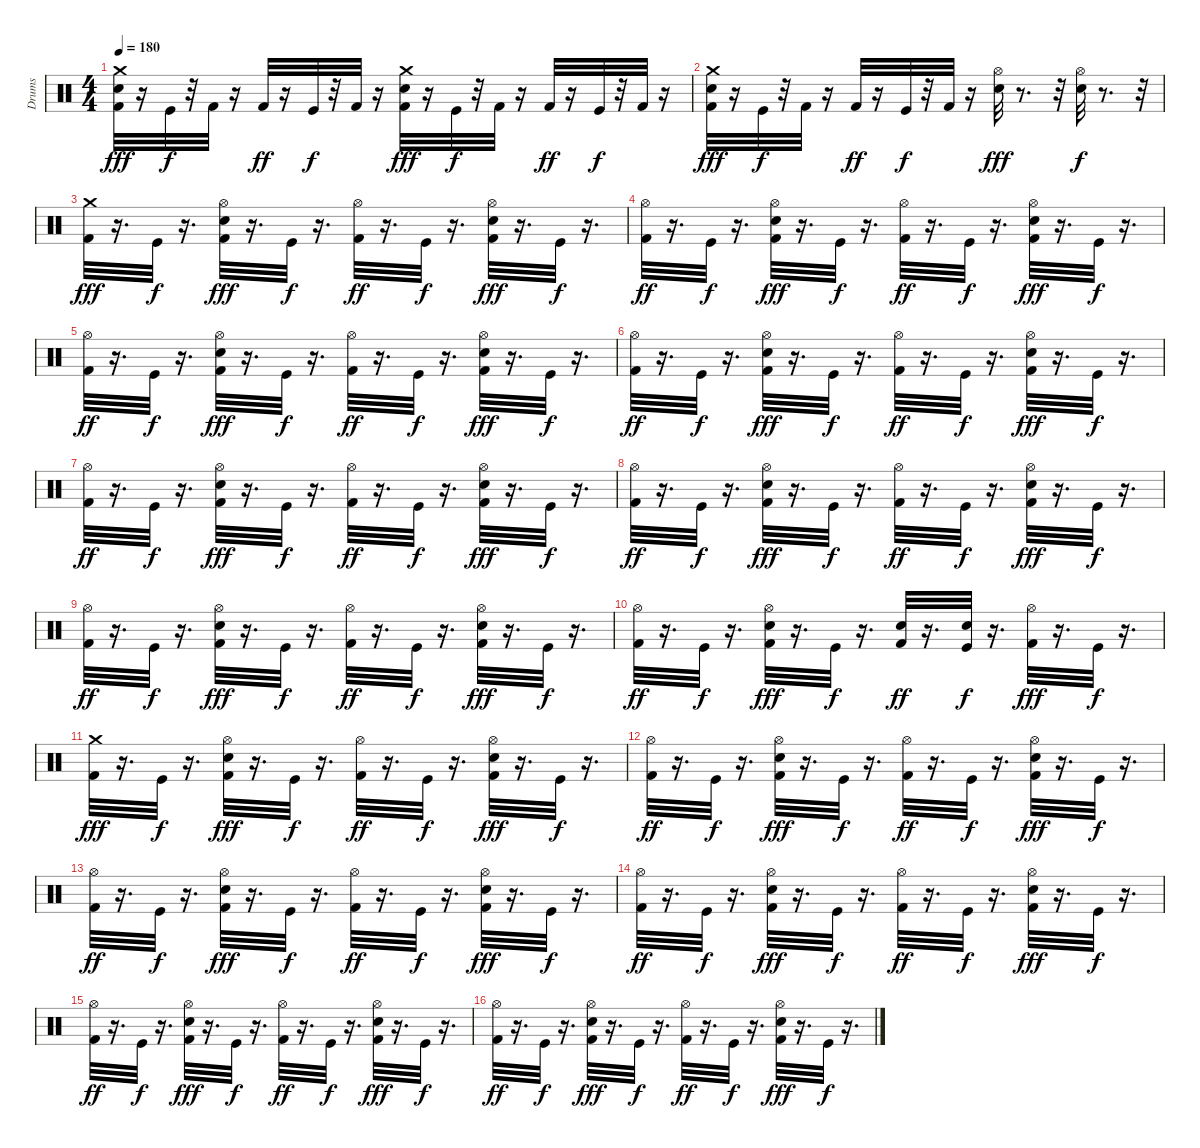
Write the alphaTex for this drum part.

\track ("Drums" "Drums") {instrument percussion}
\staff {score}
\articulation defaults
\ts (4 4)
\tempo 180
\clef neutral
\ks c
("Kick (hit) 2" "Snare (hit) 2" "Crash medium (hit)").32{dy fff} r.16 "Kick (hit)".32{dy f} r.32 "Kick (hit) 2".32 r.16 "Kick (hit) 2".32{dy ff} r.16 "Kick (hit)".32{dy f} r.32 "Kick (hit) 2".32 r.16 ("Crash medium (hit)" "Kick (hit) 2" "Snare (hit) 2").32{dy fff} r.16 "Kick (hit)".32{dy f} r.32 "Kick (hit) 2".32 r.16 "Kick (hit) 2".32{dy ff} r.16 "Kick (hit)".32{dy f} r.32 "Kick (hit) 2".32 r.16 |
("Crash medium (hit)" "Kick (hit) 2" "Snare (hit) 2").32{dy fff} r.16 "Kick (hit)".32{dy f} r.32 "Kick (hit) 2".32 r.16 "Kick (hit) 2".32{dy ff} r.16 "Kick (hit)".32{dy f} r.32 "Kick (hit) 2".32 r.16 ("Hi-Hat (open)" "Snare (hit) 2").32{dy fff} r.8{d} r.32 ("Hi-Hat (open)" "Snare (hit) 2").32{dy f} r.8{d} r.32 |
("Kick (hit) 2" "Crash medium (hit)").32{dy fff} r.16{d} "Kick (hit)".32{dy f} r.16{d} ("Kick (hit) 2" "Snare (hit) 2" "Hi-Hat (open)").32{dy fff} r.16{d} "Kick (hit)".32{dy f} r.16{d} ("Kick (hit) 2" "Hi-Hat (open)").32{dy ff} r.16{d} "Kick (hit)".32{dy f} r.16{d} ("Kick (hit) 2" "Snare (hit) 2" "Hi-Hat (open)").32{dy fff} r.16{d} "Kick (hit)".32{dy f} r.16{d} |
("Kick (hit) 2" "Hi-Hat (open)").32{dy ff} r.16{d} "Kick (hit)".32{dy f} r.16{d} ("Kick (hit) 2" "Snare (hit) 2" "Hi-Hat (open)").32{dy fff} r.16{d} "Kick (hit)".32{dy f} r.16{d} ("Kick (hit) 2" "Hi-Hat (open)").32{dy ff} r.16{d} "Kick (hit)".32{dy f} r.16{d} ("Kick (hit) 2" "Snare (hit) 2" "Hi-Hat (open)").32{dy fff} r.16{d} "Kick (hit)".32{dy f} r.16{d} |
("Kick (hit) 2" "Hi-Hat (open)").32{dy ff} r.16{d} "Kick (hit)".32{dy f} r.16{d} ("Kick (hit) 2" "Snare (hit) 2" "Hi-Hat (open)").32{dy fff} r.16{d} "Kick (hit)".32{dy f} r.16{d} ("Kick (hit) 2" "Hi-Hat (open)").32{dy ff} r.16{d} "Kick (hit)".32{dy f} r.16{d} ("Kick (hit) 2" "Snare (hit) 2" "Hi-Hat (open)").32{dy fff} r.16{d} "Kick (hit)".32{dy f} r.16{d} |
("Kick (hit) 2" "Hi-Hat (open)").32{dy ff} r.16{d} "Kick (hit)".32{dy f} r.16{d} ("Kick (hit) 2" "Snare (hit) 2" "Hi-Hat (open)").32{dy fff} r.16{d} "Kick (hit)".32{dy f} r.16{d} ("Kick (hit) 2" "Hi-Hat (open)").32{dy ff} r.16{d} "Kick (hit)".32{dy f} r.16{d} ("Kick (hit) 2" "Snare (hit) 2" "Hi-Hat (open)").32{dy fff} r.16{d} "Kick (hit)".32{dy f} r.16{d} |
("Kick (hit) 2" "Hi-Hat (open)").32{dy ff} r.16{d} "Kick (hit)".32{dy f} r.16{d} ("Kick (hit) 2" "Snare (hit) 2" "Hi-Hat (open)").32{dy fff} r.16{d} "Kick (hit)".32{dy f} r.16{d} ("Kick (hit) 2" "Hi-Hat (open)").32{dy ff} r.16{d} "Kick (hit)".32{dy f} r.16{d} ("Kick (hit) 2" "Snare (hit) 2" "Hi-Hat (open)").32{dy fff} r.16{d} "Kick (hit)".32{dy f} r.16{d} |
("Kick (hit) 2" "Hi-Hat (open)").32{dy ff} r.16{d} "Kick (hit)".32{dy f} r.16{d} ("Kick (hit) 2" "Snare (hit) 2" "Hi-Hat (open)").32{dy fff} r.16{d} "Kick (hit)".32{dy f} r.16{d} ("Kick (hit) 2" "Hi-Hat (open)").32{dy ff} r.16{d} "Kick (hit)".32{dy f} r.16{d} ("Kick (hit) 2" "Snare (hit) 2" "Hi-Hat (open)").32{dy fff} r.16{d} "Kick (hit)".32{dy f} r.16{d} |
("Kick (hit) 2" "Hi-Hat (open)").32{dy ff} r.16{d} "Kick (hit)".32{dy f} r.16{d} ("Kick (hit) 2" "Snare (hit) 2" "Hi-Hat (open)").32{dy fff} r.16{d} "Kick (hit)".32{dy f} r.16{d} ("Kick (hit) 2" "Hi-Hat (open)").32{dy ff} r.16{d} "Kick (hit)".32{dy f} r.16{d} ("Kick (hit) 2" "Snare (hit) 2" "Hi-Hat (open)").32{dy fff} r.16{d} "Kick (hit)".32{dy f} r.16{d} |
("Kick (hit) 2" "Hi-Hat (open)").32{dy ff} r.16{d} "Kick (hit)".32{dy f} r.16{d} ("Kick (hit) 2" "Snare (hit) 2" "Hi-Hat (open)").32{dy fff} r.16{d} "Kick (hit)".32{dy f} r.16{d} ("Snare (hit) 2" "Kick (hit) 2").32{dy ff} r.16{d} ("Snare (hit) 2" "Kick (hit)").32{dy f} r.16{d} ("Kick (hit) 2" "Hi-Hat (open)").32{dy fff} r.16{d} "Kick (hit)".32{dy f} r.16{d} |
("Kick (hit) 2" "Crash medium (hit)").32{dy fff} r.16{d} "Kick (hit)".32{dy f} r.16{d} ("Kick (hit) 2" "Snare (hit) 2" "Hi-Hat (open)").32{dy fff} r.16{d} "Kick (hit)".32{dy f} r.16{d} ("Kick (hit) 2" "Hi-Hat (open)").32{dy ff} r.16{d} "Kick (hit)".32{dy f} r.16{d} ("Kick (hit) 2" "Snare (hit) 2" "Hi-Hat (open)").32{dy fff} r.16{d} "Kick (hit)".32{dy f} r.16{d} |
("Kick (hit) 2" "Hi-Hat (open)").32{dy ff} r.16{d} "Kick (hit)".32{dy f} r.16{d} ("Kick (hit) 2" "Snare (hit) 2" "Hi-Hat (open)").32{dy fff} r.16{d} "Kick (hit)".32{dy f} r.16{d} ("Kick (hit) 2" "Hi-Hat (open)").32{dy ff} r.16{d} "Kick (hit)".32{dy f} r.16{d} ("Kick (hit) 2" "Snare (hit) 2" "Hi-Hat (open)").32{dy fff} r.16{d} "Kick (hit)".32{dy f} r.16{d} |
("Kick (hit) 2" "Hi-Hat (open)").32{dy ff} r.16{d} "Kick (hit)".32{dy f} r.16{d} ("Kick (hit) 2" "Snare (hit) 2" "Hi-Hat (open)").32{dy fff} r.16{d} "Kick (hit)".32{dy f} r.16{d} ("Kick (hit) 2" "Hi-Hat (open)").32{dy ff} r.16{d} "Kick (hit)".32{dy f} r.16{d} ("Kick (hit) 2" "Snare (hit) 2" "Hi-Hat (open)").32{dy fff} r.16{d} "Kick (hit)".32{dy f} r.16{d} |
("Kick (hit) 2" "Hi-Hat (open)").32{dy ff} r.16{d} "Kick (hit)".32{dy f} r.16{d} ("Kick (hit) 2" "Snare (hit) 2" "Hi-Hat (open)").32{dy fff} r.16{d} "Kick (hit)".32{dy f} r.16{d} ("Kick (hit) 2" "Hi-Hat (open)").32{dy ff} r.16{d} "Kick (hit)".32{dy f} r.16{d} ("Kick (hit) 2" "Snare (hit) 2" "Hi-Hat (open)").32{dy fff} r.16{d} "Kick (hit)".32{dy f} r.16{d} |
("Kick (hit) 2" "Hi-Hat (open)").32{dy ff} r.16{d} "Kick (hit)".32{dy f} r.16{d} ("Kick (hit) 2" "Snare (hit) 2" "Hi-Hat (open)").32{dy fff} r.16{d} "Kick (hit)".32{dy f} r.16{d} ("Kick (hit) 2" "Hi-Hat (open)").32{dy ff} r.16{d} "Kick (hit)".32{dy f} r.16{d} ("Kick (hit) 2" "Snare (hit) 2" "Hi-Hat (open)").32{dy fff} r.16{d} "Kick (hit)".32{dy f} r.16{d} |
("Kick (hit) 2" "Hi-Hat (open)").32{dy ff} r.16{d} "Kick (hit)".32{dy f} r.16{d} ("Kick (hit) 2" "Snare (hit) 2" "Hi-Hat (open)").32{dy fff} r.16{d} "Kick (hit)".32{dy f} r.16{d} ("Kick (hit) 2" "Hi-Hat (open)").32{dy ff} r.16{d} "Kick (hit)".32{dy f} r.16{d} ("Kick (hit) 2" "Snare (hit) 2" "Hi-Hat (open)").32{dy fff} r.16{d} "Kick (hit)".32{dy f} r.16{d}
